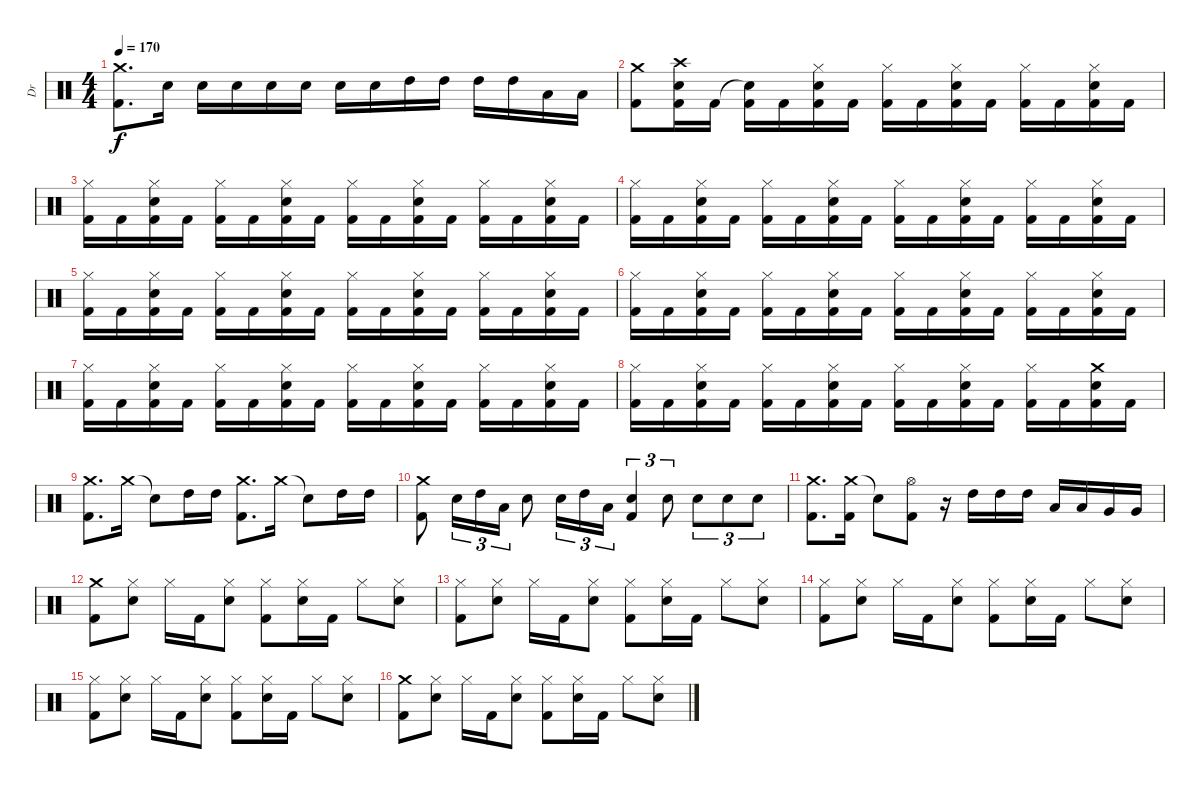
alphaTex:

\track ("Dr" "Dr") {instrument percussion}
\staff {score}
\articulation defaults
\ts (4 4)
\tempo 170
\clef neutral
\ks c
("Crash medium (hit)" "Kick (hit) 2").8{d dy f} "Electric Snare (hit)".16 "Electric Snare (hit)".16 "Electric Snare (hit)".16 "Electric Snare (hit)".16 "Electric Snare (hit)".16 "Electric Snare (hit)".16 "Electric Snare (hit)".16 "High Tom (hit)".16 "High Tom (hit)".16 "High Tom (hit)".16 "High Tom (hit)".16 "Low Tom (hit)".16 "Low Tom (hit)".16 |
("Crash medium (hit)" "Kick (hit) 2").8 ("Crash high (hit)" "Electric Snare (hit)" "Kick (hit) 2").16 "Kick (hit) 2".16 ("Snare (hit)"{t} "Kick (hit) 2").16 "Kick (hit) 2".16 ("Hi-Hat (closed)" "Electric Snare (hit)" "Kick (hit) 2").16 "Kick (hit) 2".16 ("Hi-Hat (closed)" "Kick (hit) 2").16 "Kick (hit) 2".16 ("Hi-Hat (closed)" "Electric Snare (hit)" "Kick (hit) 2").16 "Kick (hit) 2".16 ("Hi-Hat (closed)" "Kick (hit) 2").16 "Kick (hit) 2".16 ("Hi-Hat (closed)" "Electric Snare (hit)" "Kick (hit) 2").16 "Kick (hit) 2".16 |
("Hi-Hat (closed)" "Kick (hit) 2").16 "Kick (hit) 2".16 ("Hi-Hat (closed)" "Electric Snare (hit)" "Kick (hit) 2").16 "Kick (hit) 2".16 ("Hi-Hat (closed)" "Kick (hit) 2").16 "Kick (hit) 2".16 ("Hi-Hat (closed)" "Electric Snare (hit)" "Kick (hit) 2").16 "Kick (hit) 2".16 ("Hi-Hat (closed)" "Kick (hit) 2").16 "Kick (hit) 2".16 ("Hi-Hat (closed)" "Electric Snare (hit)" "Kick (hit) 2").16 "Kick (hit) 2".16 ("Hi-Hat (closed)" "Kick (hit) 2").16 "Kick (hit) 2".16 ("Hi-Hat (closed)" "Electric Snare (hit)" "Kick (hit) 2").16 "Kick (hit) 2".16 |
("Hi-Hat (closed)" "Kick (hit) 2").16 "Kick (hit) 2".16 ("Hi-Hat (closed)" "Electric Snare (hit)" "Kick (hit) 2").16 "Kick (hit) 2".16 ("Hi-Hat (closed)" "Kick (hit) 2").16 "Kick (hit) 2".16 ("Hi-Hat (closed)" "Electric Snare (hit)" "Kick (hit) 2").16 "Kick (hit) 2".16 ("Hi-Hat (closed)" "Kick (hit) 2").16 "Kick (hit) 2".16 ("Hi-Hat (closed)" "Electric Snare (hit)" "Kick (hit) 2").16 "Kick (hit) 2".16 ("Hi-Hat (closed)" "Kick (hit) 2").16 "Kick (hit) 2".16 ("Hi-Hat (closed)" "Electric Snare (hit)" "Kick (hit) 2").16 "Kick (hit) 2".16 |
("Hi-Hat (closed)" "Kick (hit) 2").16 "Kick (hit) 2".16 ("Hi-Hat (closed)" "Electric Snare (hit)" "Kick (hit) 2").16 "Kick (hit) 2".16 ("Hi-Hat (closed)" "Kick (hit) 2").16 "Kick (hit) 2".16 ("Hi-Hat (closed)" "Electric Snare (hit)" "Kick (hit) 2").16 "Kick (hit) 2".16 ("Hi-Hat (closed)" "Kick (hit) 2").16 "Kick (hit) 2".16 ("Hi-Hat (closed)" "Electric Snare (hit)" "Kick (hit) 2").16 "Kick (hit) 2".16 ("Hi-Hat (closed)" "Kick (hit) 2").16 "Kick (hit) 2".16 ("Hi-Hat (closed)" "Electric Snare (hit)" "Kick (hit) 2").16 "Kick (hit) 2".16 |
("Hi-Hat (closed)" "Kick (hit) 2").16 "Kick (hit) 2".16 ("Hi-Hat (closed)" "Electric Snare (hit)" "Kick (hit) 2").16 "Kick (hit) 2".16 ("Hi-Hat (closed)" "Kick (hit) 2").16 "Kick (hit) 2".16 ("Hi-Hat (closed)" "Electric Snare (hit)" "Kick (hit) 2").16 "Kick (hit) 2".16 ("Hi-Hat (closed)" "Kick (hit) 2").16 "Kick (hit) 2".16 ("Hi-Hat (closed)" "Electric Snare (hit)" "Kick (hit) 2").16 "Kick (hit) 2".16 ("Hi-Hat (closed)" "Kick (hit) 2").16 "Kick (hit) 2".16 ("Hi-Hat (closed)" "Electric Snare (hit)" "Kick (hit) 2").16 "Kick (hit) 2".16 |
("Hi-Hat (closed)" "Kick (hit) 2").16 "Kick (hit) 2".16 ("Hi-Hat (closed)" "Electric Snare (hit)" "Kick (hit) 2").16 "Kick (hit) 2".16 ("Hi-Hat (closed)" "Kick (hit) 2").16 "Kick (hit) 2".16 ("Hi-Hat (closed)" "Electric Snare (hit)" "Kick (hit) 2").16 "Kick (hit) 2".16 ("Hi-Hat (closed)" "Kick (hit) 2").16 "Kick (hit) 2".16 ("Hi-Hat (closed)" "Electric Snare (hit)" "Kick (hit) 2").16 "Kick (hit) 2".16 ("Hi-Hat (closed)" "Kick (hit) 2").16 "Kick (hit) 2".16 ("Hi-Hat (closed)" "Electric Snare (hit)" "Kick (hit) 2").16 "Kick (hit) 2".16 |
("Hi-Hat (closed)" "Kick (hit) 2").16 "Kick (hit) 2".16 ("Hi-Hat (closed)" "Electric Snare (hit)" "Kick (hit) 2").16 "Kick (hit) 2".16 ("Hi-Hat (closed)" "Kick (hit) 2").16 "Kick (hit) 2".16 ("Hi-Hat (closed)" "Electric Snare (hit)" "Kick (hit) 2").16 "Kick (hit) 2".16 ("Hi-Hat (closed)" "Kick (hit) 2").16 "Kick (hit) 2".16 ("Hi-Hat (closed)" "Electric Snare (hit)" "Kick (hit) 2").16 "Kick (hit) 2".16 ("Hi-Hat (closed)" "Kick (hit) 2").16 "Kick (hit) 2".16 ("Crash medium (hit)" "Electric Snare (hit)" "Kick (hit) 2").16 "Kick (hit) 2".16 |
("Crash medium (hit)" "Kick (hit) 2").8{d} "Crash medium (hit)".16 "Snare (hit)"{t}.8 "High Tom (hit)".16 "High Tom (hit)".16 ("Crash medium (hit)" "Kick (hit) 2").8{d} "Crash medium (hit)".16 "Snare (hit)"{t}.8 "High Tom (hit)".16 "High Tom (hit)".16 |
("Crash medium (hit)" "Kick (hit) 2").8 "Electric Snare (hit)".16{tu (3 2)} "High Tom (hit)".16{tu (3 2)} "Low Tom (hit)".16{tu (3 2)} "Electric Snare (hit)".8 "Electric Snare (hit)".16{tu (3 2)} "High Tom (hit)".16{tu (3 2)} "Low Tom (hit)".16{tu (3 2)} ("Electric Snare (hit)" "Kick (hit) 2").4{tu (3 2)} "Electric Snare (hit)".8{tu (3 2)} "Electric Snare (hit)".8{tu (3 2)} "Electric Snare (hit)".8{tu (3 2)} "Electric Snare (hit)".8{tu (3 2)} |
("Crash medium (hit)" "Kick (hit) 2").8{d} ("Crash medium (hit)" "Kick (hit) 2").16 "Snare (hit)"{t}.8 ("Hi-Hat (open)" "Kick (hit) 2").8 r.16 "High Tom (hit)".16 "High Tom (hit)".16 "High Tom (hit)".16 "Low Tom (hit)".16 "Low Tom (hit)".16 "Very Low Tom (hit)".16 "Very Low Tom (hit)".16 |
("Crash medium (hit)" "Kick (hit) 2").8 ("Hi-Hat (closed)" "Electric Snare (hit)").8 "Hi-Hat (closed)".16 "Kick (hit) 2".16 ("Hi-Hat (closed)" "Electric Snare (hit)").8 ("Hi-Hat (closed)" "Kick (hit) 2").8 ("Hi-Hat (closed)" "Electric Snare (hit)").16 "Kick (hit) 2".16 "Hi-Hat (closed)".8 ("Hi-Hat (closed)" "Electric Snare (hit)").8 |
("Hi-Hat (closed)" "Kick (hit) 2").8 ("Hi-Hat (closed)" "Electric Snare (hit)").8 "Hi-Hat (closed)".16 "Kick (hit) 2".16 ("Hi-Hat (closed)" "Electric Snare (hit)").8 ("Hi-Hat (closed)" "Kick (hit) 2").8 ("Hi-Hat (closed)" "Electric Snare (hit)").16 "Kick (hit) 2".16 "Hi-Hat (closed)".8 ("Hi-Hat (closed)" "Electric Snare (hit)").8 |
("Hi-Hat (closed)" "Kick (hit) 2").8 ("Hi-Hat (closed)" "Electric Snare (hit)").8 "Hi-Hat (closed)".16 "Kick (hit) 2".16 ("Hi-Hat (closed)" "Electric Snare (hit)").8 ("Hi-Hat (closed)" "Kick (hit) 2").8 ("Hi-Hat (closed)" "Electric Snare (hit)").16 "Kick (hit) 2".16 "Hi-Hat (closed)".8 ("Hi-Hat (closed)" "Electric Snare (hit)").8 |
("Hi-Hat (closed)" "Kick (hit) 2").8 ("Hi-Hat (closed)" "Electric Snare (hit)").8 "Hi-Hat (closed)".16 "Kick (hit) 2".16 ("Hi-Hat (closed)" "Electric Snare (hit)").8 ("Hi-Hat (closed)" "Kick (hit) 2").8 ("Hi-Hat (closed)" "Electric Snare (hit)").16 "Kick (hit) 2".16 "Hi-Hat (closed)".8 ("Hi-Hat (closed)" "Electric Snare (hit)").8 |
("Crash medium (hit)" "Kick (hit) 2").8 ("Hi-Hat (closed)" "Electric Snare (hit)").8 "Hi-Hat (closed)".16 "Kick (hit) 2".16 ("Hi-Hat (closed)" "Electric Snare (hit)").8 ("Hi-Hat (closed)" "Kick (hit) 2").8 ("Hi-Hat (closed)" "Electric Snare (hit)").16 "Kick (hit) 2".16 "Hi-Hat (closed)".8 ("Hi-Hat (closed)" "Electric Snare (hit)").8
